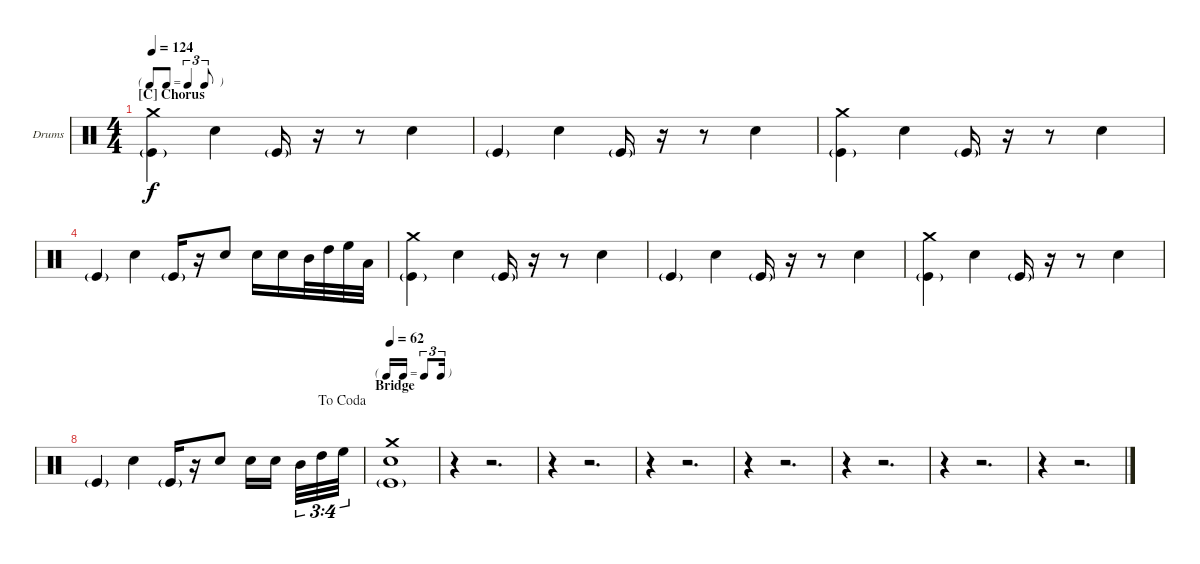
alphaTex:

\bracketExtendMode nobrackets
\firstSystemTrackNameOrientation horizontal
\otherSystemsTrackNameOrientation horizontal
\defaultBarNumberDisplay FirstOfSystem
\track ("Drumkit" "Drums") {instrument percussion}
\staff {score}
\articulation defaults
\ts (4 4)
\tf triplet8th
\section ("C" "Chorus")
\tempo 124
\clef neutral
\ks c
("Kick (hit)"{g} "Crash medium (hit)").4{dy f} "Snare (hit) 2".4 "Kick (hit)"{g}.16 r.16 r.8 "Snare (hit) 2".4 |
"Kick (hit)"{g}.4 "Snare (hit) 2".4 "Kick (hit)"{g}.16 r.16 r.8 "Snare (hit) 2".4 |
("Kick (hit)"{g} "Crash medium (hit)").4 "Snare (hit) 2".4 "Kick (hit)"{g}.16 r.16 r.8 "Snare (hit) 2".4 |
"Kick (hit)"{g}.4 "Snare (hit) 2".4 "Kick (hit)"{g}.16 r.16 "Snare (hit) 2".8 "Snare (hit) 2".16 "Snare (hit) 2".16 "Mid Tom (hit)".32 "High Tom (hit)".32 "High Floor Tom (hit)".32 "Low Tom (hit)".32 |
("Kick (hit)"{g} "Crash medium (hit)").4 "Snare (hit) 2".4 "Kick (hit)"{g}.16 r.16 r.8 "Snare (hit) 2".4 |
"Kick (hit)"{g}.4 "Snare (hit) 2".4 "Kick (hit)"{g}.16 r.16 r.8 "Snare (hit) 2".4 |
("Kick (hit)"{g} "Crash medium (hit)").4 "Snare (hit) 2".4 "Kick (hit)"{g}.16 r.16 r.8 "Snare (hit) 2".4 |
\jump dacoda "Kick (hit)"{g}.4 "Snare (hit) 2".4 "Kick (hit)"{g}.16
r.16 "Snare (hit) 2".8 "Snare (hit) 2".16 "Snare (hit) 2".16 "Mid Tom (hit)".32{tu (3 4)} "High Tom (hit)".32{tu (3 4)} "High Floor Tom (hit)".32{tu (3 4)} |
\tf triplet16th
\section ("" "Bridge")
\tempo 62
("Kick (hit)"{g} "Crash medium (hit)" "Snare (hit) 2").1 |
r.4 r.2{d} |
r.4 r.2{d} |
r.4 r.2{d} |
r.4 r.2{d} |
r.4 r.2{d} |
r.4 r.2{d} |
r.4 r.2{d}
